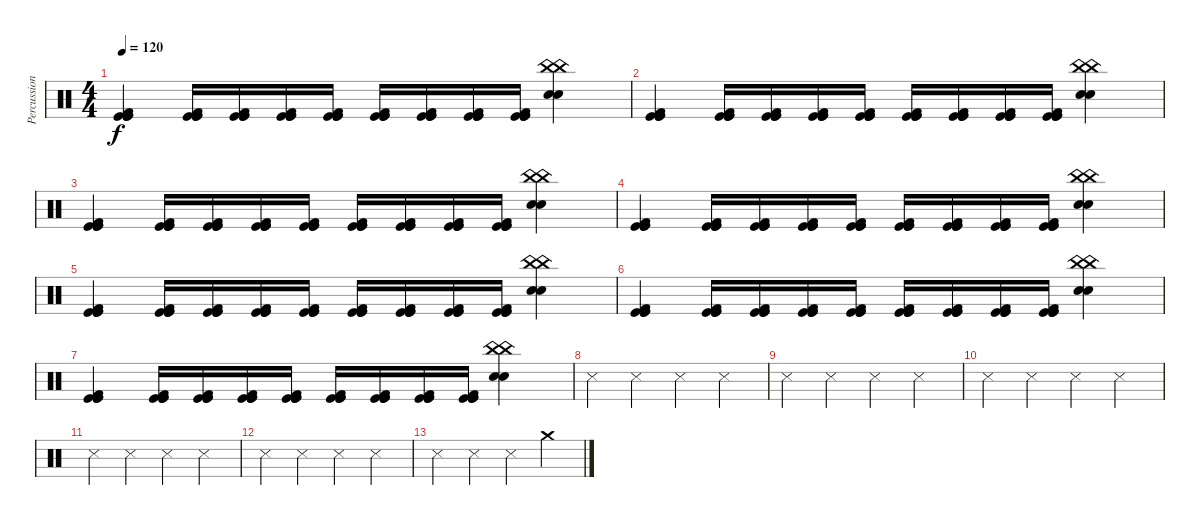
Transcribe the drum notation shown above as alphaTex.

\track ("Percussion" "Percussion") {instrument percussion}
\staff {score}
\articulation defaults
\ts (4 4)
\tempo 120
\clef neutral
\ks c
("Kick (hit)" "Kick (hit)" "Kick (hit)" "Kick (hit) 2").4{dy f} ("Kick (hit)" "Kick (hit)" "Kick (hit)" "Kick (hit) 2").16 ("Kick (hit)" "Kick (hit)" "Kick (hit)" "Kick (hit) 2").16 ("Kick (hit)" "Kick (hit)" "Kick (hit)" "Kick (hit) 2").16 ("Kick (hit)" "Kick (hit)" "Kick (hit)" "Kick (hit) 2").16 ("Kick (hit)" "Kick (hit)" "Kick (hit)" "Kick (hit) 2").16 ("Kick (hit)" "Kick (hit)" "Kick (hit)" "Kick (hit) 2").16 ("Kick (hit)" "Kick (hit)" "Kick (hit)" "Kick (hit) 2").16 ("Kick (hit)" "Kick (hit)" "Kick (hit)" "Kick (hit) 2").16 ("China (hit)" "China (hit)" "Snare (hit) 2" "Snare (hit) 2").4 |
("Kick (hit)" "Kick (hit)" "Kick (hit)" "Kick (hit) 2").4 ("Kick (hit)" "Kick (hit)" "Kick (hit)" "Kick (hit) 2").16 ("Kick (hit)" "Kick (hit)" "Kick (hit)" "Kick (hit) 2").16 ("Kick (hit)" "Kick (hit)" "Kick (hit)" "Kick (hit) 2").16 ("Kick (hit)" "Kick (hit)" "Kick (hit)" "Kick (hit) 2").16 ("Kick (hit)" "Kick (hit)" "Kick (hit)" "Kick (hit) 2").16 ("Kick (hit)" "Kick (hit)" "Kick (hit)" "Kick (hit) 2").16 ("Kick (hit)" "Kick (hit)" "Kick (hit)" "Kick (hit) 2").16 ("Kick (hit)" "Kick (hit)" "Kick (hit)" "Kick (hit) 2").16 ("China (hit)" "China (hit)" "Snare (hit) 2" "Snare (hit) 2").4 |
("Kick (hit)" "Kick (hit)" "Kick (hit)" "Kick (hit) 2").4 ("Kick (hit)" "Kick (hit)" "Kick (hit)" "Kick (hit) 2").16 ("Kick (hit)" "Kick (hit)" "Kick (hit)" "Kick (hit) 2").16 ("Kick (hit)" "Kick (hit)" "Kick (hit)" "Kick (hit) 2").16 ("Kick (hit)" "Kick (hit)" "Kick (hit)" "Kick (hit) 2").16 ("Kick (hit)" "Kick (hit)" "Kick (hit)" "Kick (hit) 2").16 ("Kick (hit)" "Kick (hit)" "Kick (hit)" "Kick (hit) 2").16 ("Kick (hit)" "Kick (hit)" "Kick (hit)" "Kick (hit) 2").16 ("Kick (hit)" "Kick (hit)" "Kick (hit)" "Kick (hit) 2").16 ("China (hit)" "China (hit)" "Snare (hit) 2" "Snare (hit) 2").4 |
("Kick (hit)" "Kick (hit)" "Kick (hit)" "Kick (hit) 2").4 ("Kick (hit)" "Kick (hit)" "Kick (hit)" "Kick (hit) 2").16 ("Kick (hit)" "Kick (hit)" "Kick (hit)" "Kick (hit) 2").16 ("Kick (hit)" "Kick (hit)" "Kick (hit)" "Kick (hit) 2").16 ("Kick (hit)" "Kick (hit)" "Kick (hit)" "Kick (hit) 2").16 ("Kick (hit)" "Kick (hit)" "Kick (hit)" "Kick (hit) 2").16 ("Kick (hit)" "Kick (hit)" "Kick (hit)" "Kick (hit) 2").16 ("Kick (hit)" "Kick (hit)" "Kick (hit)" "Kick (hit) 2").16 ("Kick (hit)" "Kick (hit)" "Kick (hit)" "Kick (hit) 2").16 ("China (hit)" "China (hit)" "Snare (hit) 2" "Snare (hit) 2").4 |
("Kick (hit)" "Kick (hit)" "Kick (hit)" "Kick (hit) 2").4 ("Kick (hit)" "Kick (hit)" "Kick (hit)" "Kick (hit) 2").16 ("Kick (hit)" "Kick (hit)" "Kick (hit)" "Kick (hit) 2").16 ("Kick (hit)" "Kick (hit)" "Kick (hit)" "Kick (hit) 2").16 ("Kick (hit)" "Kick (hit)" "Kick (hit)" "Kick (hit) 2").16 ("Kick (hit)" "Kick (hit)" "Kick (hit)" "Kick (hit) 2").16 ("Kick (hit)" "Kick (hit)" "Kick (hit)" "Kick (hit) 2").16 ("Kick (hit)" "Kick (hit)" "Kick (hit)" "Kick (hit) 2").16 ("Kick (hit)" "Kick (hit)" "Kick (hit)" "Kick (hit) 2").16 ("China (hit)" "China (hit)" "Snare (hit) 2" "Snare (hit) 2").4 |
("Kick (hit)" "Kick (hit)" "Kick (hit)" "Kick (hit) 2").4 ("Kick (hit)" "Kick (hit)" "Kick (hit)" "Kick (hit) 2").16 ("Kick (hit)" "Kick (hit)" "Kick (hit)" "Kick (hit) 2").16 ("Kick (hit)" "Kick (hit)" "Kick (hit)" "Kick (hit) 2").16 ("Kick (hit)" "Kick (hit)" "Kick (hit)" "Kick (hit) 2").16 ("Kick (hit)" "Kick (hit)" "Kick (hit)" "Kick (hit) 2").16 ("Kick (hit)" "Kick (hit)" "Kick (hit)" "Kick (hit) 2").16 ("Kick (hit)" "Kick (hit)" "Kick (hit)" "Kick (hit) 2").16 ("Kick (hit)" "Kick (hit)" "Kick (hit)" "Kick (hit) 2").16 ("China (hit)" "China (hit)" "Snare (hit) 2" "Snare (hit) 2").4 |
("Kick (hit)" "Kick (hit)" "Kick (hit)" "Kick (hit) 2").4 ("Kick (hit)" "Kick (hit)" "Kick (hit)" "Kick (hit) 2").16 ("Kick (hit)" "Kick (hit)" "Kick (hit)" "Kick (hit) 2").16 ("Kick (hit)" "Kick (hit)" "Kick (hit)" "Kick (hit) 2").16 ("Kick (hit)" "Kick (hit)" "Kick (hit)" "Kick (hit) 2").16 ("Kick (hit)" "Kick (hit)" "Kick (hit)" "Kick (hit) 2").16 ("Kick (hit)" "Kick (hit)" "Kick (hit)" "Kick (hit) 2").16 ("Kick (hit)" "Kick (hit)" "Kick (hit)" "Kick (hit) 2").16 ("Kick (hit)" "Kick (hit)" "Kick (hit)" "Kick (hit) 2").16 ("China (hit)" "China (hit)" "Snare (hit) 2" "Snare (hit) 2").4 |
"Snare (side stick) 3".4 "Snare (side stick) 3".4 "Snare (side stick) 3".4 "Snare (side stick) 3".4 |
"Snare (side stick) 3".4 "Snare (side stick) 3".4 "Snare (side stick) 3".4 "Snare (side stick) 3".4 |
"Snare (side stick) 3".4 "Snare (side stick) 3".4 "Snare (side stick) 3".4 "Snare (side stick) 3".4 |
"Snare (side stick) 3".4 "Snare (side stick) 3".4 "Snare (side stick) 3".4 "Snare (side stick) 3".4 |
"Snare (side stick) 3".4 "Snare (side stick) 3".4 "Snare (side stick) 3".4 "Snare (side stick) 3".4 |
"Snare (side stick) 3".4 "Snare (side stick) 3".4 "Snare (side stick) 3".4 "Crash medium (hit)".4
